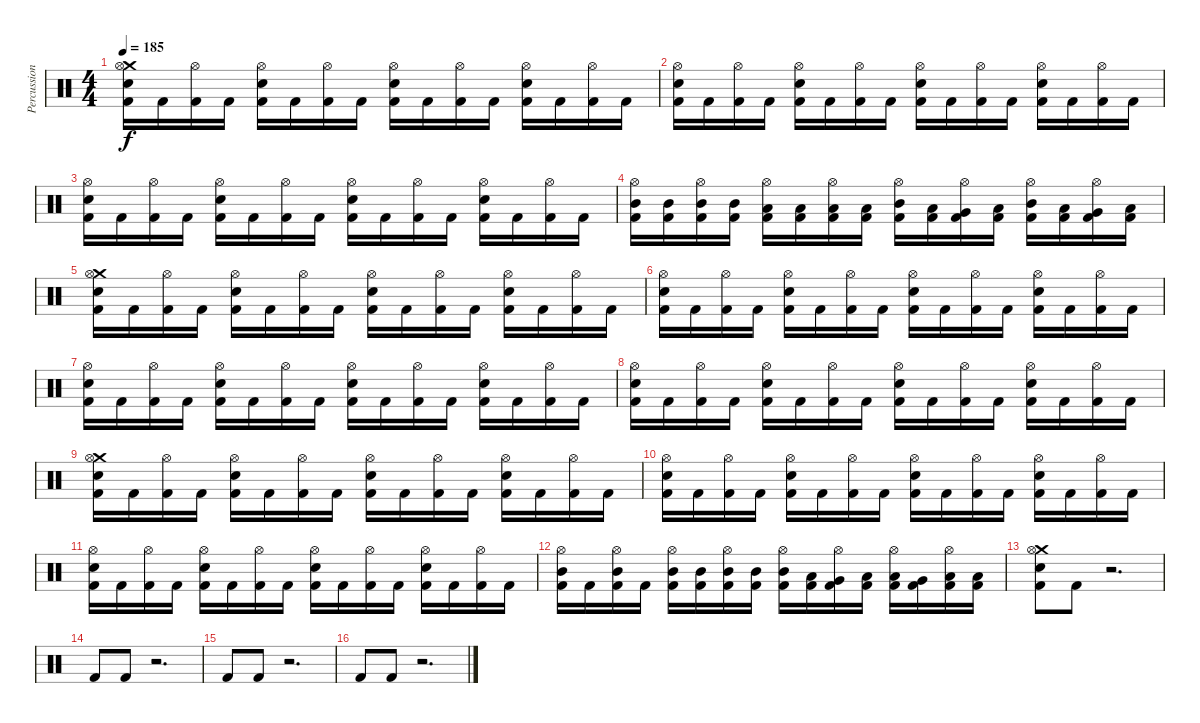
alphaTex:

\track ("Percussion" "Percussion") {instrument percussion}
\staff {score}
\articulation defaults
\ts (4 4)
\tempo 185
\clef neutral
\ks c
("Crash medium (hit)" "Hi-Hat (open)" "Electric Snare (hit)" "Kick (hit) 2").16{dy f} "Kick (hit) 2".16 ("Hi-Hat (open)" "Kick (hit) 2").16 "Kick (hit) 2".16 ("Hi-Hat (open)" "Electric Snare (hit)" "Kick (hit) 2").16 "Kick (hit) 2".16 ("Hi-Hat (open)" "Kick (hit) 2").16 "Kick (hit) 2".16 ("Hi-Hat (open)" "Electric Snare (hit)" "Kick (hit) 2").16 "Kick (hit) 2".16 ("Hi-Hat (open)" "Kick (hit) 2").16 "Kick (hit) 2".16 ("Hi-Hat (open)" "Electric Snare (hit)" "Kick (hit) 2").16 "Kick (hit) 2".16 ("Hi-Hat (open)" "Kick (hit) 2").16 "Kick (hit) 2".16 |
("Hi-Hat (open)" "Electric Snare (hit)" "Kick (hit) 2").16 "Kick (hit) 2".16 ("Hi-Hat (open)" "Kick (hit) 2").16 "Kick (hit) 2".16 ("Hi-Hat (open)" "Electric Snare (hit)" "Kick (hit) 2").16 "Kick (hit) 2".16 ("Hi-Hat (open)" "Kick (hit) 2").16 "Kick (hit) 2".16 ("Hi-Hat (open)" "Electric Snare (hit)" "Kick (hit) 2").16 "Kick (hit) 2".16 ("Hi-Hat (open)" "Kick (hit) 2").16 "Kick (hit) 2".16 ("Hi-Hat (open)" "Electric Snare (hit)" "Kick (hit) 2").16 "Kick (hit) 2".16 ("Hi-Hat (open)" "Kick (hit) 2").16 "Kick (hit) 2".16 |
("Hi-Hat (open)" "Electric Snare (hit)" "Kick (hit) 2").16 "Kick (hit) 2".16 ("Hi-Hat (open)" "Kick (hit) 2").16 "Kick (hit) 2".16 ("Hi-Hat (open)" "Electric Snare (hit)" "Kick (hit) 2").16 "Kick (hit) 2".16 ("Hi-Hat (open)" "Kick (hit) 2").16 "Kick (hit) 2".16 ("Hi-Hat (open)" "Electric Snare (hit)" "Kick (hit) 2").16 "Kick (hit) 2".16 ("Hi-Hat (open)" "Kick (hit) 2").16 "Kick (hit) 2".16 ("Hi-Hat (open)" "Electric Snare (hit)" "Kick (hit) 2").16 "Kick (hit) 2".16 ("Hi-Hat (open)" "Kick (hit) 2").16 "Kick (hit) 2".16 |
("Hi-Hat (open)" "Mid Tom (hit)" "Kick (hit) 2").16 ("Mid Tom (hit)" "Kick (hit) 2").16 ("Hi-Hat (open)" "Mid Tom (hit)" "Kick (hit) 2").16 ("Mid Tom (hit)" "Kick (hit) 2").16 ("Hi-Hat (open)" "Low Tom (hit)" "Kick (hit) 2").16 ("Low Tom (hit)" "Kick (hit) 2").16 ("Hi-Hat (open)" "Low Tom (hit)" "Kick (hit) 2").16 ("Low Tom (hit)" "Kick (hit) 2").16 ("Hi-Hat (open)" "Mid Tom (hit)" "Kick (hit) 2").16 ("Low Tom (hit)" "Kick (hit) 2").16 ("Hi-Hat (open)" "Very Low Tom (hit)" "Kick (hit) 2").16 ("Low Floor Tom (hit)" "Kick (hit) 2").16 ("Hi-Hat (open)" "Mid Tom (hit)" "Kick (hit) 2").16 ("Low Tom (hit)" "Kick (hit) 2").16 ("Hi-Hat (open)" "Very Low Tom (hit)" "Kick (hit) 2").16 ("Low Floor Tom (hit)" "Kick (hit) 2").16 |
("Crash medium (hit)" "Hi-Hat (open)" "Electric Snare (hit)" "Kick (hit) 2").16 "Kick (hit) 2".16 ("Hi-Hat (open)" "Kick (hit) 2").16 "Kick (hit) 2".16 ("Hi-Hat (open)" "Electric Snare (hit)" "Kick (hit) 2").16 "Kick (hit) 2".16 ("Hi-Hat (open)" "Kick (hit) 2").16 "Kick (hit) 2".16 ("Hi-Hat (open)" "Electric Snare (hit)" "Kick (hit) 2").16 "Kick (hit) 2".16 ("Hi-Hat (open)" "Kick (hit) 2").16 "Kick (hit) 2".16 ("Hi-Hat (open)" "Electric Snare (hit)" "Kick (hit) 2").16 "Kick (hit) 2".16 ("Hi-Hat (open)" "Kick (hit) 2").16 "Kick (hit) 2".16 |
("Hi-Hat (open)" "Electric Snare (hit)" "Kick (hit) 2").16 "Kick (hit) 2".16 ("Hi-Hat (open)" "Kick (hit) 2").16 "Kick (hit) 2".16 ("Hi-Hat (open)" "Electric Snare (hit)" "Kick (hit) 2").16 "Kick (hit) 2".16 ("Hi-Hat (open)" "Kick (hit) 2").16 "Kick (hit) 2".16 ("Hi-Hat (open)" "Electric Snare (hit)" "Kick (hit) 2").16 "Kick (hit) 2".16 ("Hi-Hat (open)" "Kick (hit) 2").16 "Kick (hit) 2".16 ("Hi-Hat (open)" "Electric Snare (hit)" "Kick (hit) 2").16 "Kick (hit) 2".16 ("Hi-Hat (open)" "Kick (hit) 2").16 "Kick (hit) 2".16 |
("Hi-Hat (open)" "Electric Snare (hit)" "Kick (hit) 2").16 "Kick (hit) 2".16 ("Hi-Hat (open)" "Kick (hit) 2").16 "Kick (hit) 2".16 ("Hi-Hat (open)" "Electric Snare (hit)" "Kick (hit) 2").16 "Kick (hit) 2".16 ("Hi-Hat (open)" "Kick (hit) 2").16 "Kick (hit) 2".16 ("Hi-Hat (open)" "Electric Snare (hit)" "Kick (hit) 2").16 "Kick (hit) 2".16 ("Hi-Hat (open)" "Kick (hit) 2").16 "Kick (hit) 2".16 ("Hi-Hat (open)" "Electric Snare (hit)" "Kick (hit) 2").16 "Kick (hit) 2".16 ("Hi-Hat (open)" "Kick (hit) 2").16 "Kick (hit) 2".16 |
("Hi-Hat (open)" "Electric Snare (hit)" "Kick (hit) 2").16 "Kick (hit) 2".16 ("Hi-Hat (open)" "Kick (hit) 2").16 "Kick (hit) 2".16 ("Hi-Hat (open)" "Electric Snare (hit)" "Kick (hit) 2").16 "Kick (hit) 2".16 ("Hi-Hat (open)" "Kick (hit) 2").16 "Kick (hit) 2".16 ("Hi-Hat (open)" "Electric Snare (hit)" "Kick (hit) 2").16 "Kick (hit) 2".16 ("Hi-Hat (open)" "Kick (hit) 2").16 "Kick (hit) 2".16 ("Hi-Hat (open)" "Electric Snare (hit)" "Kick (hit) 2").16 "Kick (hit) 2".16 ("Hi-Hat (open)" "Kick (hit) 2").16 "Kick (hit) 2".16 |
("Crash medium (hit)" "Hi-Hat (open)" "Electric Snare (hit)" "Kick (hit) 2").16 "Kick (hit) 2".16 ("Hi-Hat (open)" "Kick (hit) 2").16 "Kick (hit) 2".16 ("Hi-Hat (open)" "Electric Snare (hit)" "Kick (hit) 2").16 "Kick (hit) 2".16 ("Hi-Hat (open)" "Kick (hit) 2").16 "Kick (hit) 2".16 ("Hi-Hat (open)" "Electric Snare (hit)" "Kick (hit) 2").16 "Kick (hit) 2".16 ("Hi-Hat (open)" "Kick (hit) 2").16 "Kick (hit) 2".16 ("Hi-Hat (open)" "Electric Snare (hit)" "Kick (hit) 2").16 "Kick (hit) 2".16 ("Hi-Hat (open)" "Kick (hit) 2").16 "Kick (hit) 2".16 |
("Hi-Hat (open)" "Electric Snare (hit)" "Kick (hit) 2").16 "Kick (hit) 2".16 ("Hi-Hat (open)" "Kick (hit) 2").16 "Kick (hit) 2".16 ("Hi-Hat (open)" "Electric Snare (hit)" "Kick (hit) 2").16 "Kick (hit) 2".16 ("Hi-Hat (open)" "Kick (hit) 2").16 "Kick (hit) 2".16 ("Hi-Hat (open)" "Electric Snare (hit)" "Kick (hit) 2").16 "Kick (hit) 2".16 ("Hi-Hat (open)" "Kick (hit) 2").16 "Kick (hit) 2".16 ("Hi-Hat (open)" "Electric Snare (hit)" "Kick (hit) 2").16 "Kick (hit) 2".16 ("Hi-Hat (open)" "Kick (hit) 2").16 "Kick (hit) 2".16 |
("Hi-Hat (open)" "Electric Snare (hit)" "Kick (hit) 2").16 "Kick (hit) 2".16 ("Hi-Hat (open)" "Kick (hit) 2").16 "Kick (hit) 2".16 ("Hi-Hat (open)" "Electric Snare (hit)" "Kick (hit) 2").16 "Kick (hit) 2".16 ("Hi-Hat (open)" "Kick (hit) 2").16 "Kick (hit) 2".16 ("Hi-Hat (open)" "Electric Snare (hit)" "Kick (hit) 2").16 "Kick (hit) 2".16 ("Hi-Hat (open)" "Kick (hit) 2").16 "Kick (hit) 2".16 ("Hi-Hat (open)" "Electric Snare (hit)" "Kick (hit) 2").16 "Kick (hit) 2".16 ("Hi-Hat (open)" "Kick (hit) 2").16 "Kick (hit) 2".16 |
("Hi-Hat (open)" "Mid Tom (hit)" "Kick (hit) 2").16 "Kick (hit) 2".16 ("Hi-Hat (open)" "Mid Tom (hit)" "Kick (hit) 2").16 "Kick (hit) 2".16 ("Hi-Hat (open)" "Mid Tom (hit)" "Kick (hit) 2").16 ("Mid Tom (hit)" "Kick (hit) 2").16 ("Hi-Hat (open)" "Mid Tom (hit)" "Kick (hit) 2").16 ("Mid Tom (hit)" "Kick (hit) 2").16 ("Hi-Hat (open)" "Mid Tom (hit)" "Kick (hit) 2").16 ("Low Tom (hit)" "Kick (hit) 2").16 ("Hi-Hat (open)" "Very Low Tom (hit)" "Kick (hit) 2").16 ("Low Floor Tom (hit)" "Kick (hit) 2").16 ("Hi-Hat (open)" "Low Tom (hit)" "Kick (hit) 2").16 ("Very Low Tom (hit)" "Kick (hit) 2").16 ("Hi-Hat (open)" "Low Floor Tom (hit)" "Kick (hit) 2").16 ("Low Floor Tom (hit)" "Kick (hit) 2").16 |
("Crash medium (hit)" "Hi-Hat (open)" "Electric Snare (hit)" "Kick (hit) 2").8 "Kick (hit) 2".8 r.2{d} |
"Kick (hit) 2".8 "Kick (hit) 2".8 r.2{d} |
"Kick (hit) 2".8 "Kick (hit) 2".8 r.2{d} |
"Kick (hit) 2".8 "Kick (hit) 2".8 r.2{d}
